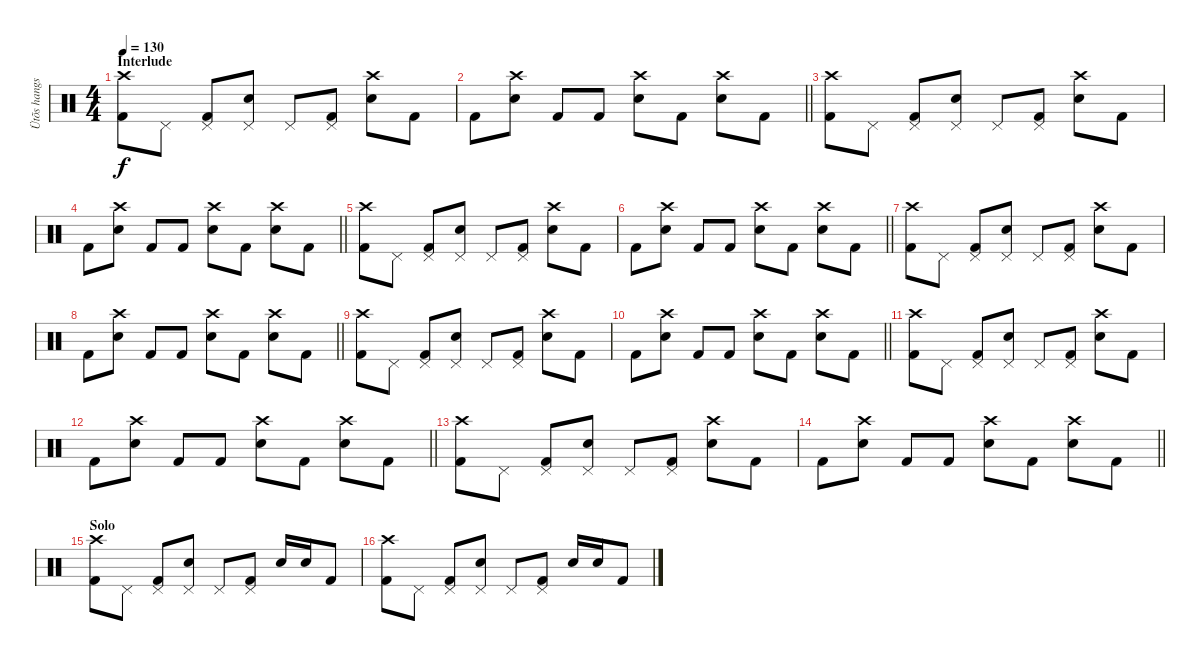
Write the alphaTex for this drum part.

\track ("Ütõs hangszer" "Ütõs hangs") {instrument percussion}
\staff {score}
\articulation defaults
\ts (4 4)
\section ("" "Interlude")
\tempo 130
\clef neutral
\ks c
("Crash high (hit)" "Kick (hit) 2").8{dy f} "Pedal Hi-Hat (hit)".8 ("Pedal Hi-Hat (hit)" "Kick (hit) 2").8 ("Pedal Hi-Hat (hit)" "Snare (hit) 2").8 "Pedal Hi-Hat (hit)".8 ("Pedal Hi-Hat (hit)" "Kick (hit) 2").8 ("Crash high (hit)" "Snare (hit) 2").8 "Kick (hit) 2".8 |
\barLineRight lightlight "Kick (hit) 2".8
("Crash high (hit)" "Snare (hit) 2").8 "Kick (hit) 2".8 "Kick (hit) 2".8 ("Crash high (hit)" "Snare (hit) 2").8 "Kick (hit) 2".8 ("Crash high (hit)" "Snare (hit) 2").8 "Kick (hit) 2".8 |
("Crash high (hit)" "Kick (hit) 2").8 "Pedal Hi-Hat (hit)".8 ("Pedal Hi-Hat (hit)" "Kick (hit) 2").8 ("Pedal Hi-Hat (hit)" "Snare (hit) 2").8 "Pedal Hi-Hat (hit)".8 ("Pedal Hi-Hat (hit)" "Kick (hit) 2").8 ("Crash high (hit)" "Snare (hit) 2").8 "Kick (hit) 2".8 |
\barLineRight lightlight "Kick (hit) 2".8
("Crash high (hit)" "Snare (hit) 2").8 "Kick (hit) 2".8 "Kick (hit) 2".8 ("Crash high (hit)" "Snare (hit) 2").8 "Kick (hit) 2".8 ("Crash high (hit)" "Snare (hit) 2").8 "Kick (hit) 2".8 |
("Crash high (hit)" "Kick (hit) 2").8 "Pedal Hi-Hat (hit)".8 ("Pedal Hi-Hat (hit)" "Kick (hit) 2").8 ("Pedal Hi-Hat (hit)" "Snare (hit) 2").8 "Pedal Hi-Hat (hit)".8 ("Pedal Hi-Hat (hit)" "Kick (hit) 2").8 ("Crash high (hit)" "Snare (hit) 2").8 "Kick (hit) 2".8 |
\barLineRight lightlight "Kick (hit) 2".8
("Crash high (hit)" "Snare (hit) 2").8 "Kick (hit) 2".8 "Kick (hit) 2".8 ("Crash high (hit)" "Snare (hit) 2").8 "Kick (hit) 2".8 ("Crash high (hit)" "Snare (hit) 2").8 "Kick (hit) 2".8 |
("Crash high (hit)" "Kick (hit) 2").8 "Pedal Hi-Hat (hit)".8 ("Pedal Hi-Hat (hit)" "Kick (hit) 2").8 ("Pedal Hi-Hat (hit)" "Snare (hit) 2").8 "Pedal Hi-Hat (hit)".8 ("Pedal Hi-Hat (hit)" "Kick (hit) 2").8 ("Crash high (hit)" "Snare (hit) 2").8 "Kick (hit) 2".8 |
\barLineRight lightlight "Kick (hit) 2".8
("Crash high (hit)" "Snare (hit) 2").8 "Kick (hit) 2".8 "Kick (hit) 2".8 ("Crash high (hit)" "Snare (hit) 2").8 "Kick (hit) 2".8 ("Crash high (hit)" "Snare (hit) 2").8 "Kick (hit) 2".8 |
("Crash high (hit)" "Kick (hit) 2").8 "Pedal Hi-Hat (hit)".8 ("Pedal Hi-Hat (hit)" "Kick (hit) 2").8 ("Pedal Hi-Hat (hit)" "Snare (hit) 2").8 "Pedal Hi-Hat (hit)".8 ("Pedal Hi-Hat (hit)" "Kick (hit) 2").8 ("Crash high (hit)" "Snare (hit) 2").8 "Kick (hit) 2".8 |
\barLineRight lightlight "Kick (hit) 2".8
("Crash high (hit)" "Snare (hit) 2").8 "Kick (hit) 2".8 "Kick (hit) 2".8 ("Crash high (hit)" "Snare (hit) 2").8 "Kick (hit) 2".8 ("Crash high (hit)" "Snare (hit) 2").8 "Kick (hit) 2".8 |
("Crash high (hit)" "Kick (hit) 2").8 "Pedal Hi-Hat (hit)".8 ("Pedal Hi-Hat (hit)" "Kick (hit) 2").8 ("Pedal Hi-Hat (hit)" "Snare (hit) 2").8 "Pedal Hi-Hat (hit)".8 ("Pedal Hi-Hat (hit)" "Kick (hit) 2").8 ("Crash high (hit)" "Snare (hit) 2").8 "Kick (hit) 2".8 |
\barLineRight lightlight "Kick (hit) 2".8
("Crash high (hit)" "Snare (hit) 2").8 "Kick (hit) 2".8 "Kick (hit) 2".8 ("Crash high (hit)" "Snare (hit) 2").8 "Kick (hit) 2".8 ("Crash high (hit)" "Snare (hit) 2").8 "Kick (hit) 2".8 |
("Crash high (hit)" "Kick (hit) 2").8 "Pedal Hi-Hat (hit)".8 ("Pedal Hi-Hat (hit)" "Kick (hit) 2").8 ("Pedal Hi-Hat (hit)" "Snare (hit) 2").8 "Pedal Hi-Hat (hit)".8 ("Pedal Hi-Hat (hit)" "Kick (hit) 2").8 ("Crash high (hit)" "Snare (hit) 2").8 "Kick (hit) 2".8 |
\barLineRight lightlight "Kick (hit) 2".8
("Crash high (hit)" "Snare (hit) 2").8 "Kick (hit) 2".8 "Kick (hit) 2".8 ("Crash high (hit)" "Snare (hit) 2").8 "Kick (hit) 2".8 ("Crash high (hit)" "Snare (hit) 2").8 "Kick (hit) 2".8 |
\section ("" "Solo")
("Crash high (hit)" "Kick (hit) 2").8 "Pedal Hi-Hat (hit)".8 ("Pedal Hi-Hat (hit)" "Kick (hit) 2").8 ("Pedal Hi-Hat (hit)" "Snare (hit) 2").8 "Pedal Hi-Hat (hit)".8 ("Pedal Hi-Hat (hit)" "Kick (hit) 2").8 "Snare (hit) 2".16 "Snare (hit) 2".16 "Kick (hit) 2".8 |
("Crash high (hit)" "Kick (hit) 2").8 "Pedal Hi-Hat (hit)".8 ("Pedal Hi-Hat (hit)" "Kick (hit) 2").8 ("Pedal Hi-Hat (hit)" "Snare (hit) 2").8 "Pedal Hi-Hat (hit)".8 ("Pedal Hi-Hat (hit)" "Kick (hit) 2").8 "Snare (hit) 2".16 "Snare (hit) 2".16 "Kick (hit) 2".8
